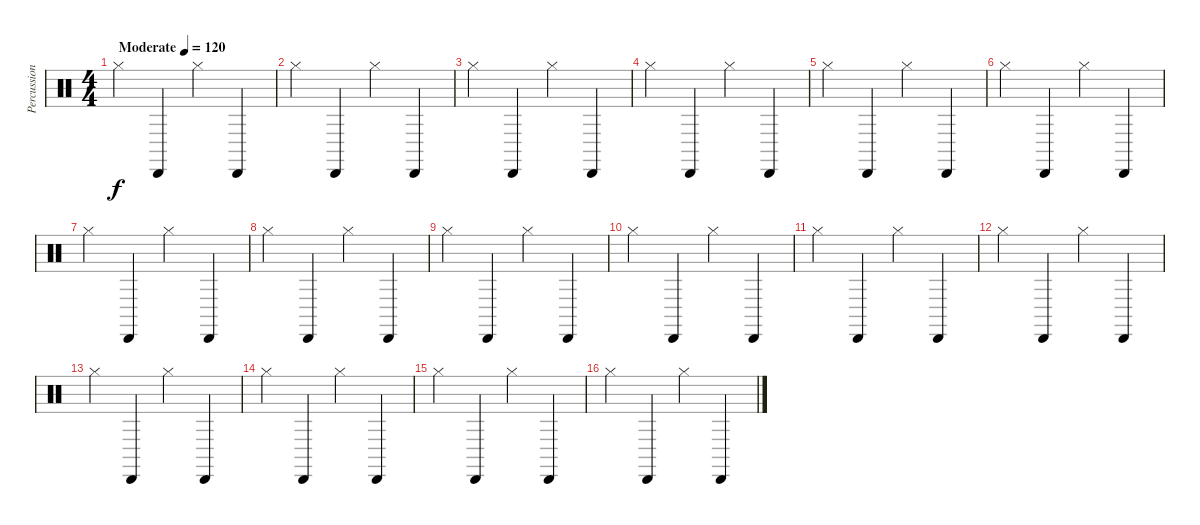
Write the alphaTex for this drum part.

\track ("Percussion" "Percussion") {instrument percussion}
\staff {score}
\articulation defaults
\ts (4 4)
\tempo (120 "Moderate")
\clef neutral
\ks c "Hi-Hat (closed)".4{dy f} "Cabasa (hit)".4 "Hi-Hat (closed)".4 "Cabasa (hit)".4
|
"Hi-Hat (closed)".4 "Cabasa (hit)".4 "Hi-Hat (closed)".4 "Cabasa (hit)".4 |
"Hi-Hat (closed)".4 "Cabasa (hit)".4 "Hi-Hat (closed)".4 "Cabasa (hit)".4 |
"Hi-Hat (closed)".4 "Cabasa (hit)".4 "Hi-Hat (closed)".4 "Cabasa (hit)".4 |
"Hi-Hat (closed)".4 "Cabasa (hit)".4 "Hi-Hat (closed)".4 "Cabasa (hit)".4 |
"Hi-Hat (closed)".4 "Cabasa (hit)".4 "Hi-Hat (closed)".4 "Cabasa (hit)".4 |
"Hi-Hat (closed)".4 "Cabasa (hit)".4 "Hi-Hat (closed)".4 "Cabasa (hit)".4 |
"Hi-Hat (closed)".4 "Cabasa (hit)".4 "Hi-Hat (closed)".4 "Cabasa (hit)".4 |
"Hi-Hat (closed)".4 "Cabasa (hit)".4 "Hi-Hat (closed)".4 "Cabasa (hit)".4 |
"Hi-Hat (closed)".4 "Cabasa (hit)".4 "Hi-Hat (closed)".4 "Cabasa (hit)".4 |
"Hi-Hat (closed)".4 "Cabasa (hit)".4 "Hi-Hat (closed)".4 "Cabasa (hit)".4 |
"Hi-Hat (closed)".4 "Cabasa (hit)".4 "Hi-Hat (closed)".4 "Cabasa (hit)".4 |
"Hi-Hat (closed)".4 "Cabasa (hit)".4 "Hi-Hat (closed)".4 "Cabasa (hit)".4 |
"Hi-Hat (closed)".4 "Cabasa (hit)".4 "Hi-Hat (closed)".4 "Cabasa (hit)".4 |
"Hi-Hat (closed)".4 "Cabasa (hit)".4 "Hi-Hat (closed)".4 "Cabasa (hit)".4 |
"Hi-Hat (closed)".4 "Cabasa (hit)".4 "Hi-Hat (closed)".4 "Cabasa (hit)".4
